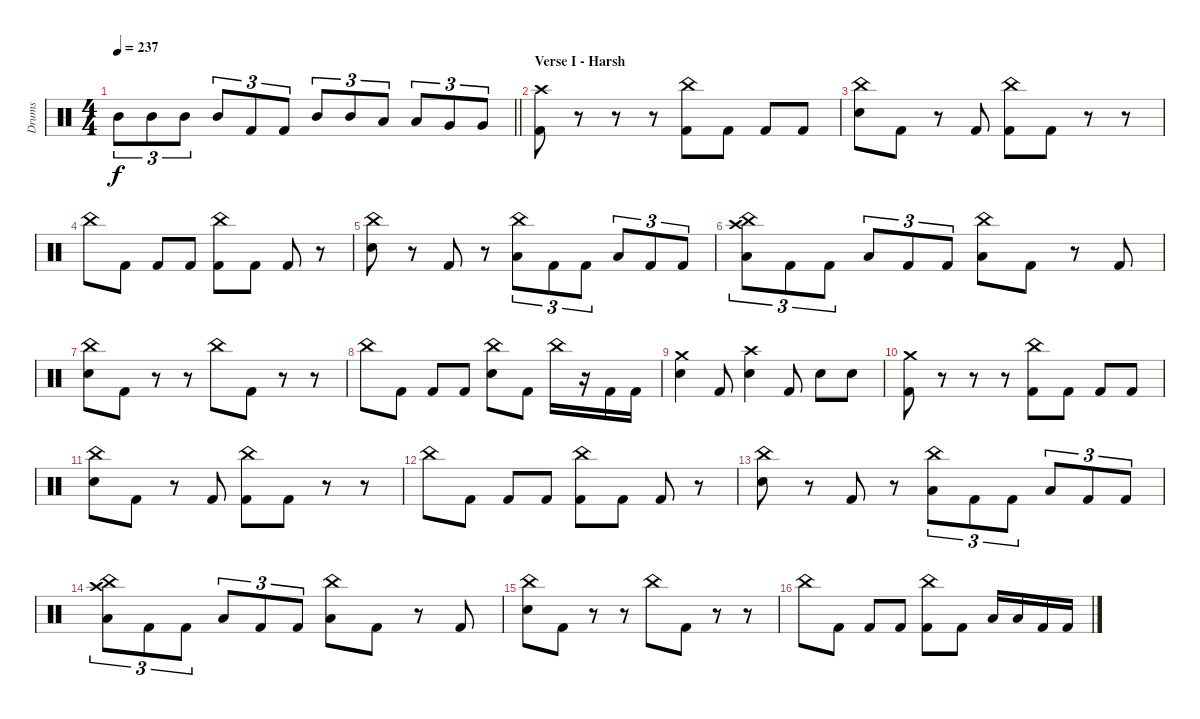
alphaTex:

\track ("Drums" "Drums") {instrument percussion}
\staff {score}
\articulation defaults
\ts (4 4)
\tempo 237
\clef neutral
\barLineRight lightlight
\ks c "Mid Tom (hit)".8{tu (3 2) dy f} "Mid Tom (hit)".8{tu (3 2)} "Mid Tom (hit)".8{tu (3 2)} "Mid Tom (hit)".8{tu (3 2)} "Kick (hit) 2".8{tu (3 2)} "Kick (hit) 2".8{tu (3 2)} "Mid Tom (hit)".8{tu (3 2)} "Mid Tom (hit)".8{tu (3 2)} "Low Tom (hit)".8{tu (3 2)} "Low Tom (hit)".8{tu (3 2)} "Very Low Tom (hit)".8{tu (3 2)} "Very Low Tom (hit)".8{tu (3 2)}
|
\section ("" "Verse I - Harsh")
("Crash high (hit)" "Kick (hit) 2").8 r.8 r.8 r.8 ("China (hit)" "Kick (hit) 2").8 "Kick (hit) 2".8 "Kick (hit) 2".8 "Kick (hit) 2".8 |
("China (hit)" "Electric Snare (hit)").8 "Kick (hit) 2".8 r.8 "Kick (hit) 2".8 ("China (hit)" "Kick (hit) 2").8 "Kick (hit) 2".8 r.8 r.8 |
"China (hit)".8 "Kick (hit) 2".8 "Kick (hit) 2".8 "Kick (hit) 2".8 ("China (hit)" "Kick (hit) 2").8 "Kick (hit) 2".8 "Kick (hit) 2".8 r.8 |
("China (hit)" "Electric Snare (hit)").8 r.8 "Kick (hit) 2".8 r.8 ("China (hit)" "Low Floor Tom (hit)").8{tu (3 2)} "Kick (hit) 2".8{tu (3 2)} "Kick (hit) 2".8{tu (3 2)} "Low Floor Tom (hit)".8{tu (3 2)} "Kick (hit) 2".8{tu (3 2)} "Kick (hit) 2".8{tu (3 2)} |
("China (hit)" "Crash high (hit)" "Low Floor Tom (hit)").8{tu (3 2)} "Kick (hit) 2".8{tu (3 2)} "Kick (hit) 2".8{tu (3 2)} "Low Floor Tom (hit)".8{tu (3 2)} "Kick (hit) 2".8{tu (3 2)} "Kick (hit) 2".8{tu (3 2)} ("China (hit)" "Low Floor Tom (hit)").8 "Kick (hit) 2".8 r.8 "Kick (hit) 2".8 |
("China (hit)" "Electric Snare (hit)").8 "Kick (hit) 2".8 r.8 r.8 "China (hit)".8 "Kick (hit) 2".8 r.8 r.8 |
"China (hit)".8 "Kick (hit) 2".8 "Kick (hit) 2".8 "Kick (hit) 2".8 ("China (hit)" "Electric Snare (hit)").8 "Kick (hit) 2".8 "China (hit)".16 r.16 "Kick (hit) 2".16 "Kick (hit) 2".16 |
("Crash medium (hit)" "Electric Snare (hit)").4 "Kick (hit) 2".8 ("Crash high (hit)" "Electric Snare (hit)").4 "Kick (hit) 2".8 "Electric Snare (hit)".8 "Electric Snare (hit)".8 |
("Crash medium (hit)" "Kick (hit) 2").8 r.8 r.8 r.8 ("China (hit)" "Kick (hit) 2").8 "Kick (hit) 2".8 "Kick (hit) 2".8 "Kick (hit) 2".8 |
("China (hit)" "Electric Snare (hit)").8 "Kick (hit) 2".8 r.8 "Kick (hit) 2".8 ("China (hit)" "Kick (hit) 2").8 "Kick (hit) 2".8 r.8 r.8 |
"China (hit)".8 "Kick (hit) 2".8 "Kick (hit) 2".8 "Kick (hit) 2".8 ("China (hit)" "Kick (hit) 2").8 "Kick (hit) 2".8 "Kick (hit) 2".8 r.8 |
("China (hit)" "Electric Snare (hit)").8 r.8 "Kick (hit) 2".8 r.8 ("China (hit)" "Low Floor Tom (hit)").8{tu (3 2)} "Kick (hit) 2".8{tu (3 2)} "Kick (hit) 2".8{tu (3 2)} "Low Floor Tom (hit)".8{tu (3 2)} "Kick (hit) 2".8{tu (3 2)} "Kick (hit) 2".8{tu (3 2)} |
("China (hit)" "Crash high (hit)" "Low Floor Tom (hit)").8{tu (3 2)} "Kick (hit) 2".8{tu (3 2)} "Kick (hit) 2".8{tu (3 2)} "Low Floor Tom (hit)".8{tu (3 2)} "Kick (hit) 2".8{tu (3 2)} "Kick (hit) 2".8{tu (3 2)} ("China (hit)" "Low Floor Tom (hit)").8 "Kick (hit) 2".8 r.8 "Kick (hit) 2".8 |
("China (hit)" "Electric Snare (hit)").8 "Kick (hit) 2".8 r.8 r.8 "China (hit)".8 "Kick (hit) 2".8 r.8 r.8 |
"China (hit)".8 "Kick (hit) 2".8 "Kick (hit) 2".8 "Kick (hit) 2".8 ("China (hit)" "Kick (hit) 2").8 "Kick (hit) 2".8 "Low Floor Tom (hit)".16 "Low Floor Tom (hit)".16 "Kick (hit) 2".16 "Kick (hit) 2".16
